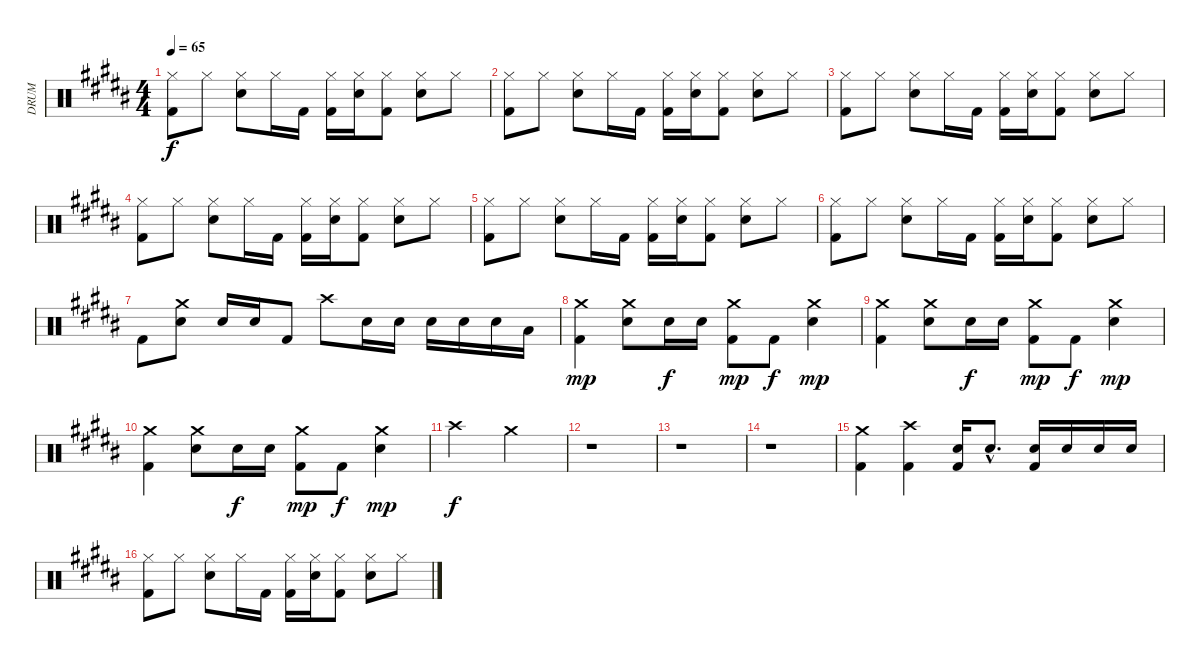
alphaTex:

\track ("DRUM" "DRUM") {instrument percussion}
\staff {score}
\articulation defaults
\ts (4 4)
\tempo 65
\clef neutral
\ks b
("Hi-Hat (closed)" "Kick (hit) 2").8{dy f} "Hi-Hat (closed)".8 ("Hi-Hat (closed)" "Electric Snare (hit)").8 "Hi-Hat (closed)".16 "Kick (hit) 2".16 ("Hi-Hat (closed)" "Kick (hit) 2").16 ("Hi-Hat (closed)" "Electric Snare (hit)").16 ("Hi-Hat (closed)" "Kick (hit) 2").8 ("Hi-Hat (closed)" "Electric Snare (hit)").8 "Hi-Hat (closed)".8 |
("Hi-Hat (closed)" "Kick (hit) 2").8 "Hi-Hat (closed)".8 ("Hi-Hat (closed)" "Electric Snare (hit)").8 "Hi-Hat (closed)".16 "Kick (hit) 2".16 ("Hi-Hat (closed)" "Kick (hit) 2").16 ("Hi-Hat (closed)" "Electric Snare (hit)").16 ("Hi-Hat (closed)" "Kick (hit) 2").8 ("Hi-Hat (closed)" "Electric Snare (hit)").8 "Hi-Hat (closed)".8 |
("Hi-Hat (closed)" "Kick (hit) 2").8 "Hi-Hat (closed)".8 ("Hi-Hat (closed)" "Electric Snare (hit)").8 "Hi-Hat (closed)".16 "Kick (hit) 2".16 ("Hi-Hat (closed)" "Kick (hit) 2").16 ("Hi-Hat (closed)" "Electric Snare (hit)").16 ("Hi-Hat (closed)" "Kick (hit) 2").8 ("Hi-Hat (closed)" "Electric Snare (hit)").8 "Hi-Hat (closed)".8 |
("Hi-Hat (closed)" "Kick (hit) 2").8 "Hi-Hat (closed)".8 ("Hi-Hat (closed)" "Electric Snare (hit)").8 "Hi-Hat (closed)".16 "Kick (hit) 2".16 ("Hi-Hat (closed)" "Kick (hit) 2").16 ("Hi-Hat (closed)" "Electric Snare (hit)").16 ("Hi-Hat (closed)" "Kick (hit) 2").8 ("Hi-Hat (closed)" "Electric Snare (hit)").8 "Hi-Hat (closed)".8 |
("Hi-Hat (closed)" "Kick (hit) 2").8 "Hi-Hat (closed)".8 ("Hi-Hat (closed)" "Electric Snare (hit)").8 "Hi-Hat (closed)".16 "Kick (hit) 2".16 ("Hi-Hat (closed)" "Kick (hit) 2").16 ("Hi-Hat (closed)" "Electric Snare (hit)").16 ("Hi-Hat (closed)" "Kick (hit) 2").8 ("Hi-Hat (closed)" "Electric Snare (hit)").8 "Hi-Hat (closed)".8 |
("Hi-Hat (closed)" "Kick (hit) 2").8 "Hi-Hat (closed)".8 ("Hi-Hat (closed)" "Electric Snare (hit)").8 "Hi-Hat (closed)".16 "Kick (hit) 2".16 ("Hi-Hat (closed)" "Kick (hit) 2").16 ("Hi-Hat (closed)" "Electric Snare (hit)").16 ("Hi-Hat (closed)" "Kick (hit) 2").8 ("Hi-Hat (closed)" "Electric Snare (hit)").8 "Hi-Hat (closed)".8 |
"Kick (hit) 2".8 ("Crash medium (hit)" "Electric Snare (hit)").8 "Snare (hit) 2".16 "Electric Snare (hit)".16 "Kick (hit) 2".8 "Crash high (hit)".8 "Snare (hit) 2".16 "Electric Snare (hit)".16 "Electric Snare (hit)".16 "Electric Snare (hit)".16 "Electric Snare (hit)".16 "Low Floor Tom (hit)".16 |
("Crash medium (hit)" "Kick (hit) 2").4{dy mp} ("Crash medium (hit)" "Electric Snare (hit)").8 "Snare (hit) 2".16{dy f} "Electric Snare (hit)".16 ("Crash medium (hit)" "Kick (hit) 2").8{dy mp} "Kick (hit) 2".8{dy f} ("Crash medium (hit)" "Electric Snare (hit)").4{dy mp} |
("Crash medium (hit)" "Kick (hit) 2").4 ("Crash medium (hit)" "Electric Snare (hit)").8 "Snare (hit) 2".16{dy f} "Electric Snare (hit)".16 ("Crash medium (hit)" "Kick (hit) 2").8{dy mp} "Kick (hit) 2".8{dy f} ("Crash medium (hit)" "Electric Snare (hit)").4{dy mp} |
("Crash medium (hit)" "Kick (hit) 2").4 ("Crash medium (hit)" "Electric Snare (hit)").8 "Snare (hit) 2".16{dy f} "Electric Snare (hit)".16 ("Crash medium (hit)" "Kick (hit) 2").8{dy mp} "Kick (hit) 2".8{dy f} ("Crash medium (hit)" "Electric Snare (hit)").4{dy mp} |
"Crash high (hit)".2{dy f} "Crash medium (hit)".2 |
r.1 |
r.1 |
r.1 |
("Crash medium (hit)" "Kick (hit) 2").4 ("Crash high (hit)" "Kick (hit) 2").4 ("Snare (hit) 2" "Kick (hit) 2").16 "Electric Snare (hit)"{hac}.8{d} ("Snare (hit) 2" "Kick (hit) 2").16 "Snare (hit) 2".16 "Electric Snare (hit)".16 "Electric Snare (hit)".16 |
("Hi-Hat (closed)" "Kick (hit) 2").8 "Hi-Hat (closed)".8 ("Hi-Hat (closed)" "Electric Snare (hit)").8 "Hi-Hat (closed)".16 "Kick (hit) 2".16 ("Hi-Hat (closed)" "Kick (hit) 2").16 ("Hi-Hat (closed)" "Electric Snare (hit)").16 ("Hi-Hat (closed)" "Kick (hit) 2").8 ("Hi-Hat (closed)" "Electric Snare (hit)").8 "Hi-Hat (closed)".8
